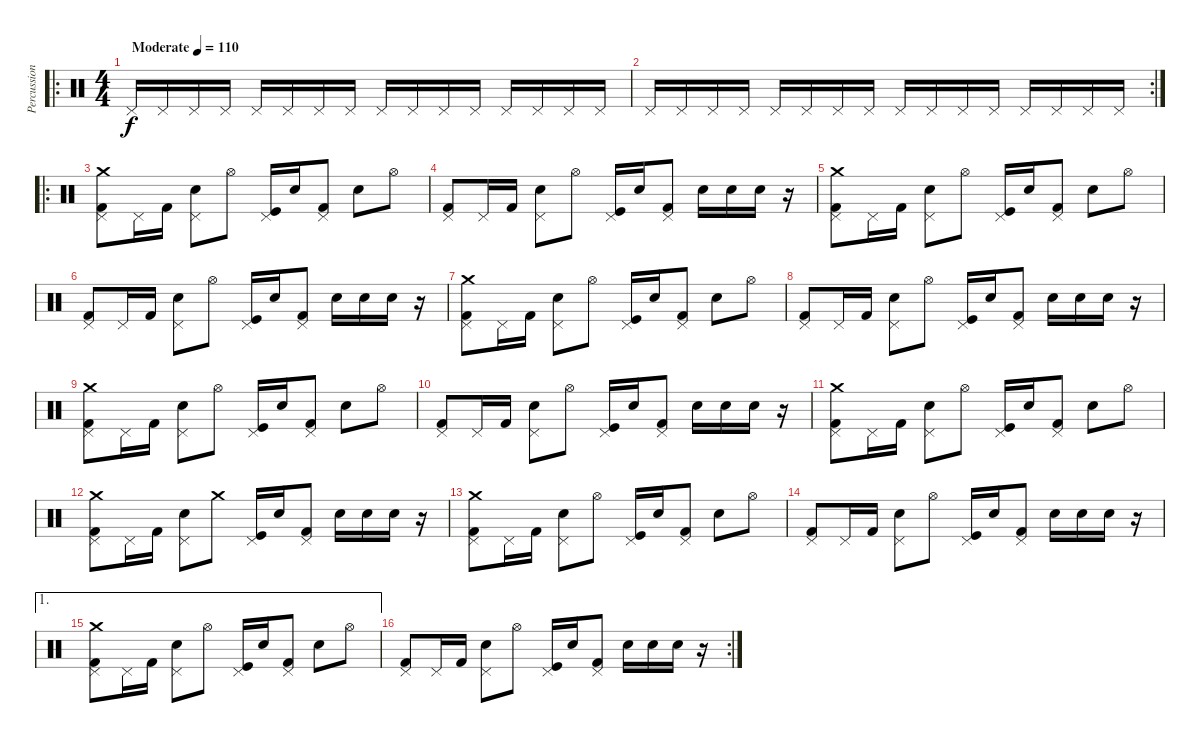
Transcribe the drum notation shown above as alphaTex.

\track ("Percussions" "Percussion") {instrument percussion}
\staff {score}
\articulation defaults
\ro
\ts (4 4)
\tempo (110 "Moderate")
\clef neutral
\ks c "Pedal Hi-Hat (hit)".16{dy f} "Pedal Hi-Hat (hit)".16 "Pedal Hi-Hat (hit)".16 "Pedal Hi-Hat (hit)".16 "Pedal Hi-Hat (hit)".16 "Pedal Hi-Hat (hit)".16 "Pedal Hi-Hat (hit)".16 "Pedal Hi-Hat (hit)".16 "Pedal Hi-Hat (hit)".16 "Pedal Hi-Hat (hit)".16 "Pedal Hi-Hat (hit)".16 "Pedal Hi-Hat (hit)".16 "Pedal Hi-Hat (hit)".16 "Pedal Hi-Hat (hit)".16 "Pedal Hi-Hat (hit)".16 "Pedal Hi-Hat (hit)".16
|
\rc 2 "Pedal Hi-Hat (hit)".16 "Pedal Hi-Hat (hit)".16 "Pedal Hi-Hat (hit)".16 "Pedal Hi-Hat (hit)".16 "Pedal Hi-Hat (hit)".16 "Pedal Hi-Hat (hit)".16 "Pedal Hi-Hat (hit)".16 "Pedal Hi-Hat (hit)".16 "Pedal Hi-Hat (hit)".16 "Pedal Hi-Hat (hit)".16 "Pedal Hi-Hat (hit)".16 "Pedal Hi-Hat (hit)".16 "Pedal Hi-Hat (hit)".16 "Pedal Hi-Hat (hit)".16 "Pedal Hi-Hat (hit)".16 "Pedal Hi-Hat (hit)".16
|
\ro
("Kick (hit) 2" "Pedal Hi-Hat (hit)" "Crash medium (hit)").8 "Pedal Hi-Hat (hit)".16 "Kick (hit) 2".16 ("Electric Snare (hit)" "Pedal Hi-Hat (hit)").8 "Hi-Hat (open)".8 ("Kick (hit)" "Pedal Hi-Hat (hit)").16 "Electric Snare (hit)".16 ("Kick (hit) 2" "Pedal Hi-Hat (hit)").8 "Electric Snare (hit)".8 "Hi-Hat (open)".8 |
("Kick (hit) 2" "Pedal Hi-Hat (hit)").8 "Pedal Hi-Hat (hit)".16 "Kick (hit) 2".16 ("Electric Snare (hit)" "Pedal Hi-Hat (hit)").8 "Hi-Hat (open)".8 ("Kick (hit)" "Pedal Hi-Hat (hit)").16 "Electric Snare (hit)".16 ("Kick (hit) 2" "Pedal Hi-Hat (hit)").8 "Electric Snare (hit)".16 "Electric Snare (hit)".16 "Electric Snare (hit)".16 r.16 |
("Kick (hit) 2" "Pedal Hi-Hat (hit)" "Crash medium (hit)").8 "Pedal Hi-Hat (hit)".16 "Kick (hit) 2".16 ("Electric Snare (hit)" "Pedal Hi-Hat (hit)").8 "Hi-Hat (open)".8 ("Kick (hit)" "Pedal Hi-Hat (hit)").16 "Electric Snare (hit)".16 ("Kick (hit) 2" "Pedal Hi-Hat (hit)").8 "Electric Snare (hit)".8 "Hi-Hat (open)".8 |
("Kick (hit) 2" "Pedal Hi-Hat (hit)").8 "Pedal Hi-Hat (hit)".16 "Kick (hit) 2".16 ("Electric Snare (hit)" "Pedal Hi-Hat (hit)").8 "Hi-Hat (open)".8 ("Kick (hit)" "Pedal Hi-Hat (hit)").16 "Electric Snare (hit)".16 ("Kick (hit) 2" "Pedal Hi-Hat (hit)").8 "Electric Snare (hit)".16 "Electric Snare (hit)".16 "Electric Snare (hit)".16 r.16 |
("Kick (hit) 2" "Pedal Hi-Hat (hit)" "Crash medium (hit)").8 "Pedal Hi-Hat (hit)".16 "Kick (hit) 2".16 ("Electric Snare (hit)" "Pedal Hi-Hat (hit)").8 "Hi-Hat (open)".8 ("Kick (hit)" "Pedal Hi-Hat (hit)").16 "Electric Snare (hit)".16 ("Kick (hit) 2" "Pedal Hi-Hat (hit)").8 "Electric Snare (hit)".8 "Hi-Hat (open)".8 |
("Kick (hit) 2" "Pedal Hi-Hat (hit)").8 "Pedal Hi-Hat (hit)".16 "Kick (hit) 2".16 ("Electric Snare (hit)" "Pedal Hi-Hat (hit)").8 "Hi-Hat (open)".8 ("Kick (hit)" "Pedal Hi-Hat (hit)").16 "Electric Snare (hit)".16 ("Kick (hit) 2" "Pedal Hi-Hat (hit)").8 "Electric Snare (hit)".16 "Electric Snare (hit)".16 "Electric Snare (hit)".16 r.16 |
("Kick (hit) 2" "Pedal Hi-Hat (hit)" "Crash medium (hit)").8 "Pedal Hi-Hat (hit)".16 "Kick (hit) 2".16 ("Electric Snare (hit)" "Pedal Hi-Hat (hit)").8 "Hi-Hat (open)".8 ("Kick (hit)" "Pedal Hi-Hat (hit)").16 "Electric Snare (hit)".16 ("Kick (hit) 2" "Pedal Hi-Hat (hit)").8 "Electric Snare (hit)".8 "Hi-Hat (open)".8 |
("Kick (hit) 2" "Pedal Hi-Hat (hit)").8 "Pedal Hi-Hat (hit)".16 "Kick (hit) 2".16 ("Electric Snare (hit)" "Pedal Hi-Hat (hit)").8 "Hi-Hat (open)".8 ("Kick (hit)" "Pedal Hi-Hat (hit)").16 "Electric Snare (hit)".16 ("Kick (hit) 2" "Pedal Hi-Hat (hit)").8 "Electric Snare (hit)".16 "Electric Snare (hit)".16 "Electric Snare (hit)".16 r.16 |
("Kick (hit) 2" "Pedal Hi-Hat (hit)" "Crash medium (hit)").8 "Pedal Hi-Hat (hit)".16 "Kick (hit) 2".16 ("Electric Snare (hit)" "Pedal Hi-Hat (hit)").8 "Hi-Hat (open)".8 ("Kick (hit)" "Pedal Hi-Hat (hit)").16 "Electric Snare (hit)".16 ("Kick (hit) 2" "Pedal Hi-Hat (hit)").8 "Electric Snare (hit)".8 "Hi-Hat (open)".8 |
("Kick (hit) 2" "Pedal Hi-Hat (hit)" "Crash medium (hit)").8 "Pedal Hi-Hat (hit)".16 "Kick (hit) 2".16 ("Electric Snare (hit)" "Pedal Hi-Hat (hit)").8 "Crash medium (hit)".8 ("Kick (hit)" "Pedal Hi-Hat (hit)").16 "Electric Snare (hit)".16 ("Kick (hit) 2" "Pedal Hi-Hat (hit)").8 "Electric Snare (hit)".16 "Electric Snare (hit)".16 "Electric Snare (hit)".16 r.16 |
("Kick (hit) 2" "Pedal Hi-Hat (hit)" "Crash medium (hit)").8 "Pedal Hi-Hat (hit)".16 "Kick (hit) 2".16 ("Electric Snare (hit)" "Pedal Hi-Hat (hit)").8 "Hi-Hat (open)".8 ("Kick (hit)" "Pedal Hi-Hat (hit)").16 "Electric Snare (hit)".16 ("Kick (hit) 2" "Pedal Hi-Hat (hit)").8 "Electric Snare (hit)".8 "Hi-Hat (open)".8 |
("Kick (hit) 2" "Pedal Hi-Hat (hit)").8 "Pedal Hi-Hat (hit)".16 "Kick (hit) 2".16 ("Electric Snare (hit)" "Pedal Hi-Hat (hit)").8 "Hi-Hat (open)".8 ("Kick (hit)" "Pedal Hi-Hat (hit)").16 "Electric Snare (hit)".16 ("Kick (hit) 2" "Pedal Hi-Hat (hit)").8 "Electric Snare (hit)".16 "Electric Snare (hit)".16 "Electric Snare (hit)".16 r.16 |
\ae 1
("Kick (hit) 2" "Pedal Hi-Hat (hit)" "Crash medium (hit)").8 "Pedal Hi-Hat (hit)".16 "Kick (hit) 2".16 ("Electric Snare (hit)" "Pedal Hi-Hat (hit)").8 "Hi-Hat (open)".8 ("Kick (hit)" "Pedal Hi-Hat (hit)").16 "Electric Snare (hit)".16 ("Kick (hit) 2" "Pedal Hi-Hat (hit)").8 "Electric Snare (hit)".8 "Hi-Hat (open)".8 |
\rc 2
("Kick (hit) 2" "Pedal Hi-Hat (hit)").8 "Pedal Hi-Hat (hit)".16 "Kick (hit) 2".16 ("Electric Snare (hit)" "Pedal Hi-Hat (hit)").8 "Hi-Hat (open)".8 ("Kick (hit)" "Pedal Hi-Hat (hit)").16 "Electric Snare (hit)".16 ("Kick (hit) 2" "Pedal Hi-Hat (hit)").8 "Electric Snare (hit)".16 "Electric Snare (hit)".16 "Electric Snare (hit)".16 r.16
